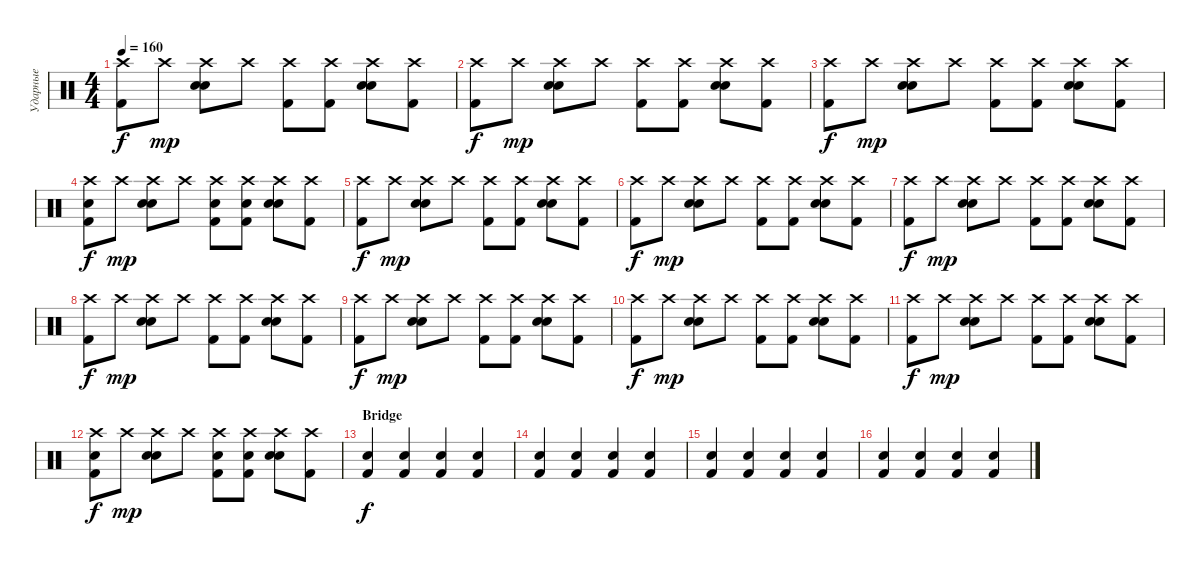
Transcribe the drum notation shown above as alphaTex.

\track ("Ударные" "Ударные") {instrument percussion}
\staff {score}
\articulation defaults
\ts (4 4)
\tempo 160
\clef neutral
\ks c
("Crash high (hit)" "Kick (hit) 2").8{dy f} "Crash high (hit)".8{dy mp} ("Crash high (hit)" "Electric Snare (hit)" "Electric Snare (hit)").8 "Crash high (hit)".8 ("Crash high (hit)" "Kick (hit) 2").8 ("Crash high (hit)" "Kick (hit) 2").8 ("Crash high (hit)" "Electric Snare (hit)" "Electric Snare (hit)").8 ("Crash high (hit)" "Kick (hit) 2").8 |
("Crash high (hit)" "Kick (hit) 2").8{dy f} "Crash high (hit)".8{dy mp} ("Crash high (hit)" "Electric Snare (hit)" "Electric Snare (hit)").8 "Crash high (hit)".8 ("Crash high (hit)" "Kick (hit) 2").8 ("Crash high (hit)" "Kick (hit) 2").8 ("Crash high (hit)" "Electric Snare (hit)" "Electric Snare (hit)").8 ("Crash high (hit)" "Kick (hit) 2").8 |
("Crash high (hit)" "Kick (hit) 2").8{dy f} "Crash high (hit)".8{dy mp} ("Crash high (hit)" "Electric Snare (hit)" "Electric Snare (hit)").8 "Crash high (hit)".8 ("Crash high (hit)" "Kick (hit) 2").8 ("Crash high (hit)" "Kick (hit) 2").8 ("Crash high (hit)" "Electric Snare (hit)" "Electric Snare (hit)").8 ("Crash high (hit)" "Kick (hit) 2").8 |
("Crash high (hit)" "Electric Snare (hit)" "Kick (hit) 2").8{dy f} "Crash high (hit)".8{dy mp} ("Crash high (hit)" "Electric Snare (hit)" "Electric Snare (hit)").8 "Crash high (hit)".8 ("Crash high (hit)" "Electric Snare (hit)" "Kick (hit) 2").8 ("Crash high (hit)" "Electric Snare (hit)" "Kick (hit) 2").8 ("Crash high (hit)" "Electric Snare (hit)" "Electric Snare (hit)").8 ("Crash high (hit)" "Kick (hit) 2").8 |
("Crash high (hit)" "Kick (hit) 2").8{dy f} "Crash high (hit)".8{dy mp} ("Crash high (hit)" "Electric Snare (hit)" "Electric Snare (hit)").8 "Crash high (hit)".8 ("Crash high (hit)" "Kick (hit) 2").8 ("Crash high (hit)" "Kick (hit) 2").8 ("Crash high (hit)" "Electric Snare (hit)" "Electric Snare (hit)").8 ("Crash high (hit)" "Kick (hit) 2").8 |
("Crash high (hit)" "Kick (hit) 2").8{dy f} "Crash high (hit)".8{dy mp} ("Crash high (hit)" "Electric Snare (hit)" "Electric Snare (hit)").8 "Crash high (hit)".8 ("Crash high (hit)" "Kick (hit) 2").8 ("Crash high (hit)" "Kick (hit) 2").8 ("Crash high (hit)" "Electric Snare (hit)" "Electric Snare (hit)").8 ("Crash high (hit)" "Kick (hit) 2").8 |
("Crash high (hit)" "Kick (hit) 2").8{dy f} "Crash high (hit)".8{dy mp} ("Crash high (hit)" "Electric Snare (hit)" "Electric Snare (hit)").8 "Crash high (hit)".8 ("Crash high (hit)" "Kick (hit) 2").8 ("Crash high (hit)" "Kick (hit) 2").8 ("Crash high (hit)" "Electric Snare (hit)" "Electric Snare (hit)").8 ("Crash high (hit)" "Kick (hit) 2").8 |
("Crash high (hit)" "Kick (hit) 2").8{dy f} "Crash high (hit)".8{dy mp} ("Crash high (hit)" "Electric Snare (hit)" "Electric Snare (hit)").8 "Crash high (hit)".8 ("Crash high (hit)" "Kick (hit) 2").8 ("Crash high (hit)" "Kick (hit) 2").8 ("Crash high (hit)" "Electric Snare (hit)" "Electric Snare (hit)").8 ("Crash high (hit)" "Kick (hit) 2").8 |
("Crash high (hit)" "Kick (hit) 2").8{dy f} "Crash high (hit)".8{dy mp} ("Crash high (hit)" "Electric Snare (hit)" "Electric Snare (hit)").8 "Crash high (hit)".8 ("Crash high (hit)" "Kick (hit) 2").8 ("Crash high (hit)" "Kick (hit) 2").8 ("Crash high (hit)" "Electric Snare (hit)" "Electric Snare (hit)").8 ("Crash high (hit)" "Kick (hit) 2").8 |
("Crash high (hit)" "Kick (hit) 2").8{dy f} "Crash high (hit)".8{dy mp} ("Crash high (hit)" "Electric Snare (hit)" "Electric Snare (hit)").8 "Crash high (hit)".8 ("Crash high (hit)" "Kick (hit) 2").8 ("Crash high (hit)" "Kick (hit) 2").8 ("Crash high (hit)" "Electric Snare (hit)" "Electric Snare (hit)").8 ("Crash high (hit)" "Kick (hit) 2").8 |
("Crash high (hit)" "Kick (hit) 2").8{dy f} "Crash high (hit)".8{dy mp} ("Crash high (hit)" "Electric Snare (hit)" "Electric Snare (hit)").8 "Crash high (hit)".8 ("Crash high (hit)" "Kick (hit) 2").8 ("Crash high (hit)" "Kick (hit) 2").8 ("Crash high (hit)" "Electric Snare (hit)" "Electric Snare (hit)").8 ("Crash high (hit)" "Kick (hit) 2").8 |
("Crash high (hit)" "Electric Snare (hit)" "Kick (hit) 2").8{dy f} "Crash high (hit)".8{dy mp} ("Crash high (hit)" "Electric Snare (hit)" "Electric Snare (hit)").8 "Crash high (hit)".8 ("Crash high (hit)" "Electric Snare (hit)" "Kick (hit) 2").8 ("Crash high (hit)" "Electric Snare (hit)" "Kick (hit) 2").8 ("Crash high (hit)" "Electric Snare (hit)" "Electric Snare (hit)").8 ("Crash high (hit)" "Kick (hit) 2").8 |
\section ("" "Bridge")
("Kick (hit) 2" "Electric Snare (hit)").4{dy f} ("Kick (hit) 2" "Electric Snare (hit)").4 ("Kick (hit) 2" "Electric Snare (hit)").4 ("Kick (hit) 2" "Electric Snare (hit)").4 |
("Kick (hit) 2" "Electric Snare (hit)").4 ("Kick (hit) 2" "Electric Snare (hit)").4 ("Kick (hit) 2" "Electric Snare (hit)").4 ("Kick (hit) 2" "Electric Snare (hit)").4 |
("Kick (hit) 2" "Electric Snare (hit)").4 ("Kick (hit) 2" "Electric Snare (hit)").4 ("Kick (hit) 2" "Electric Snare (hit)").4 ("Kick (hit) 2" "Electric Snare (hit)").4 |
("Kick (hit) 2" "Electric Snare (hit)").4 ("Kick (hit) 2" "Electric Snare (hit)").4 ("Kick (hit) 2" "Electric Snare (hit)").4 ("Kick (hit) 2" "Electric Snare (hit)").4
